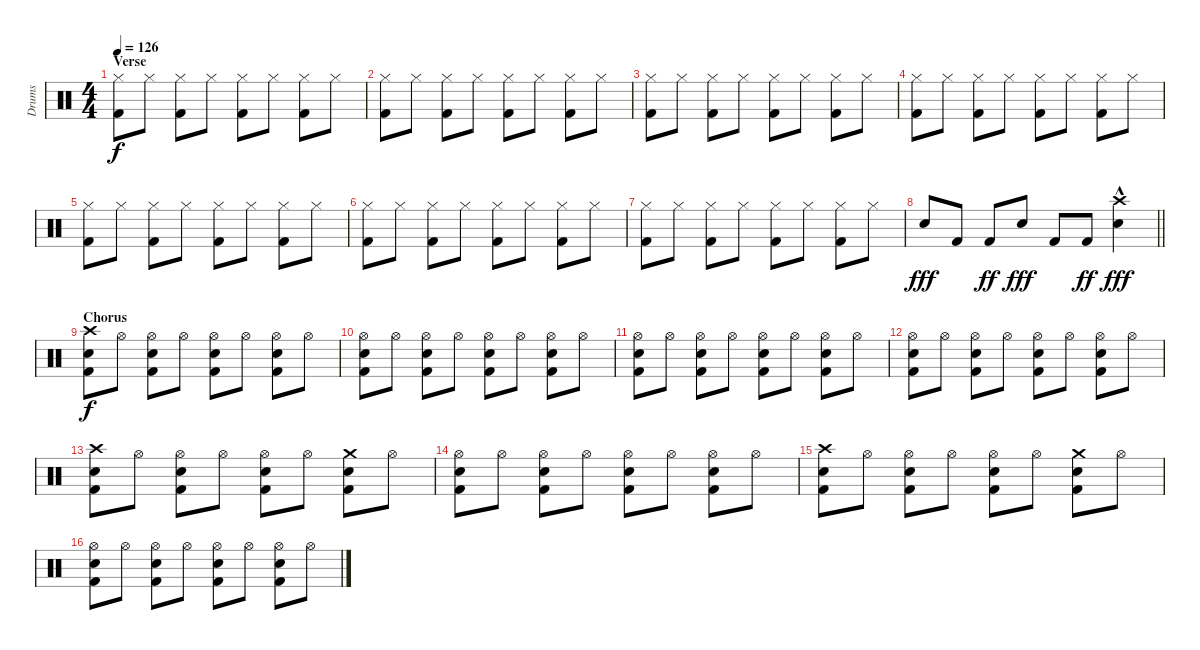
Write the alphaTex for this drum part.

\track ("Drums" "Drums") {instrument percussion}
\staff {score}
\articulation defaults
\ts (4 4)
\section ("" "Verse")
\tempo 126
\clef neutral
\ks c
("Hi-Hat (closed)" "Kick (hit) 2").8{dy f} "Hi-Hat (closed)".8 ("Hi-Hat (closed)" "Kick (hit) 2").8 "Hi-Hat (closed)".8 ("Hi-Hat (closed)" "Kick (hit) 2").8 "Hi-Hat (closed)".8 ("Hi-Hat (closed)" "Kick (hit) 2").8 "Hi-Hat (closed)".8 |
("Hi-Hat (closed)" "Kick (hit) 2").8 "Hi-Hat (closed)".8 ("Hi-Hat (closed)" "Kick (hit) 2").8 "Hi-Hat (closed)".8 ("Hi-Hat (closed)" "Kick (hit) 2").8 "Hi-Hat (closed)".8 ("Hi-Hat (closed)" "Kick (hit) 2").8 "Hi-Hat (closed)".8 |
("Hi-Hat (closed)" "Kick (hit) 2").8 "Hi-Hat (closed)".8 ("Hi-Hat (closed)" "Kick (hit) 2").8 "Hi-Hat (closed)".8 ("Hi-Hat (closed)" "Kick (hit) 2").8 "Hi-Hat (closed)".8 ("Hi-Hat (closed)" "Kick (hit) 2").8 "Hi-Hat (closed)".8 |
("Hi-Hat (closed)" "Kick (hit) 2").8 "Hi-Hat (closed)".8 ("Hi-Hat (closed)" "Kick (hit) 2").8 "Hi-Hat (closed)".8 ("Hi-Hat (closed)" "Kick (hit) 2").8 "Hi-Hat (closed)".8 ("Hi-Hat (closed)" "Kick (hit) 2").8 "Hi-Hat (closed)".8 |
("Hi-Hat (closed)" "Kick (hit) 2").8 "Hi-Hat (closed)".8 ("Hi-Hat (closed)" "Kick (hit) 2").8 "Hi-Hat (closed)".8 ("Hi-Hat (closed)" "Kick (hit) 2").8 "Hi-Hat (closed)".8 ("Hi-Hat (closed)" "Kick (hit) 2").8 "Hi-Hat (closed)".8 |
("Hi-Hat (closed)" "Kick (hit) 2").8 "Hi-Hat (closed)".8 ("Hi-Hat (closed)" "Kick (hit) 2").8 "Hi-Hat (closed)".8 ("Hi-Hat (closed)" "Kick (hit) 2").8 "Hi-Hat (closed)".8 ("Hi-Hat (closed)" "Kick (hit) 2").8 "Hi-Hat (closed)".8 |
("Hi-Hat (closed)" "Kick (hit) 2").8 "Hi-Hat (closed)".8 ("Hi-Hat (closed)" "Kick (hit) 2").8 "Hi-Hat (closed)".8 ("Hi-Hat (closed)" "Kick (hit) 2").8 "Hi-Hat (closed)".8 ("Hi-Hat (closed)" "Kick (hit) 2").8 "Hi-Hat (closed)".8 |
\barLineRight lightlight "Electric Snare (hit)".8{dy fff} "Kick (hit) 2".8 "Kick (hit) 2".8{dy ff} "Electric Snare (hit)".8{dy fff} "Kick (hit) 2".8 "Kick (hit) 2".8{dy ff}
("Crash high (hit)" "Electric Snare (hit)"{hac}).4{dy fff} |
\section ("" "Chorus")
("Crash high (hit)" "Kick (hit) 2" "Electric Snare (hit)").8{dy f} "Hi-Hat (open)".8 ("Hi-Hat (open)" "Kick (hit) 2" "Electric Snare (hit)").8 "Hi-Hat (open)".8 ("Hi-Hat (open)" "Kick (hit) 2" "Electric Snare (hit)").8 "Hi-Hat (open)".8 ("Hi-Hat (open)" "Kick (hit) 2" "Electric Snare (hit)").8 "Hi-Hat (open)".8 |
("Hi-Hat (open)" "Kick (hit) 2" "Electric Snare (hit)").8 "Hi-Hat (open)".8 ("Hi-Hat (open)" "Kick (hit) 2" "Electric Snare (hit)").8 "Hi-Hat (open)".8 ("Hi-Hat (open)" "Kick (hit) 2" "Electric Snare (hit)").8 "Hi-Hat (open)".8 ("Hi-Hat (open)" "Kick (hit) 2" "Electric Snare (hit)").8 "Hi-Hat (open)".8 |
("Hi-Hat (open)" "Kick (hit) 2" "Electric Snare (hit)").8 "Hi-Hat (open)".8 ("Hi-Hat (open)" "Kick (hit) 2" "Electric Snare (hit)").8 "Hi-Hat (open)".8 ("Hi-Hat (open)" "Kick (hit) 2" "Electric Snare (hit)").8 "Hi-Hat (open)".8 ("Hi-Hat (open)" "Kick (hit) 2" "Electric Snare (hit)").8 "Hi-Hat (open)".8 |
("Hi-Hat (open)" "Kick (hit) 2" "Electric Snare (hit)").8 "Hi-Hat (open)".8 ("Hi-Hat (open)" "Kick (hit) 2" "Electric Snare (hit)").8 "Hi-Hat (open)".8 ("Hi-Hat (open)" "Kick (hit) 2" "Electric Snare (hit)").8 "Hi-Hat (open)".8 ("Hi-Hat (open)" "Kick (hit) 2" "Electric Snare (hit)").8 "Hi-Hat (open)".8 |
("Crash high (hit)" "Kick (hit) 2" "Electric Snare (hit)").8 "Hi-Hat (open)".8 ("Hi-Hat (open)" "Kick (hit) 2" "Electric Snare (hit)").8 "Hi-Hat (open)".8 ("Hi-Hat (open)" "Kick (hit) 2" "Electric Snare (hit)").8 "Hi-Hat (open)".8 ("Crash medium (hit)" "Kick (hit) 2" "Electric Snare (hit)").8 "Hi-Hat (open)".8 |
("Hi-Hat (open)" "Kick (hit) 2" "Electric Snare (hit)").8 "Hi-Hat (open)".8 ("Hi-Hat (open)" "Kick (hit) 2" "Electric Snare (hit)").8 "Hi-Hat (open)".8 ("Hi-Hat (open)" "Kick (hit) 2" "Electric Snare (hit)").8 "Hi-Hat (open)".8 ("Hi-Hat (open)" "Kick (hit) 2" "Electric Snare (hit)").8 "Hi-Hat (open)".8 |
("Crash high (hit)" "Kick (hit) 2" "Electric Snare (hit)").8 "Hi-Hat (open)".8 ("Hi-Hat (open)" "Kick (hit) 2" "Electric Snare (hit)").8 "Hi-Hat (open)".8 ("Hi-Hat (open)" "Kick (hit) 2" "Electric Snare (hit)").8 "Hi-Hat (open)".8 ("Crash medium (hit)" "Kick (hit) 2" "Electric Snare (hit)").8 "Hi-Hat (open)".8 |
("Hi-Hat (open)" "Kick (hit) 2" "Electric Snare (hit)").8 "Hi-Hat (open)".8 ("Hi-Hat (open)" "Kick (hit) 2" "Electric Snare (hit)").8 "Hi-Hat (open)".8 ("Hi-Hat (open)" "Kick (hit) 2" "Electric Snare (hit)").8 "Hi-Hat (open)".8 ("Hi-Hat (open)" "Kick (hit) 2" "Electric Snare (hit)").8 "Hi-Hat (open)".8
